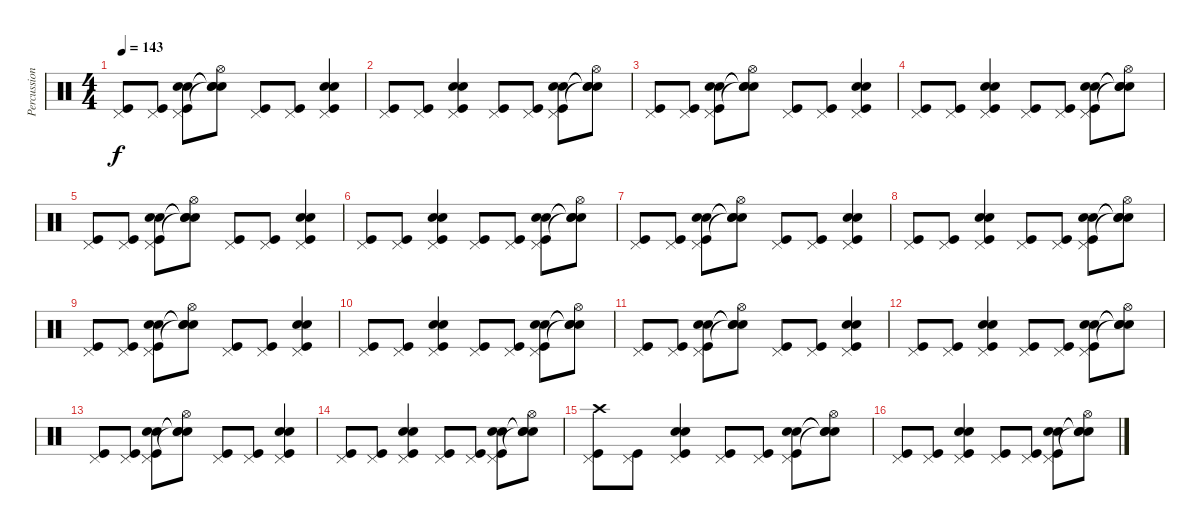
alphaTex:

\track ("Percussions" "Percussion") {instrument percussion}
\staff {score}
\articulation defaults
\ts (4 4)
\tempo 143
\clef neutral
\ks c
("Pedal Hi-Hat (hit)" "Kick (hit)").8{dy f} ("Pedal Hi-Hat (hit)" "Kick (hit)").8 ("Pedal Hi-Hat (hit)" "Snare (hit) 2" "Snare (hit) 2" "Kick (hit)").8 ("Hi-Hat (open)" "Snare (hit)"{t} "Snare (hit)"{t} "Snare (hit)"{t}).8 ("Pedal Hi-Hat (hit)" "Kick (hit)").8 ("Pedal Hi-Hat (hit)" "Kick (hit)").8 ("Pedal Hi-Hat (hit)" "Snare (hit) 2" "Snare (hit) 2" "Kick (hit)").4 |
("Pedal Hi-Hat (hit)" "Kick (hit)").8 ("Pedal Hi-Hat (hit)" "Kick (hit)").8 ("Pedal Hi-Hat (hit)" "Snare (hit) 2" "Snare (hit) 2" "Kick (hit)").4 ("Pedal Hi-Hat (hit)" "Kick (hit)").8 ("Pedal Hi-Hat (hit)" "Kick (hit)").8 ("Pedal Hi-Hat (hit)" "Snare (hit) 2" "Snare (hit) 2" "Kick (hit)").8 ("Hi-Hat (open)" "Snare (hit)"{t} "Snare (hit)"{t} "Snare (hit)"{t}).8 |
("Pedal Hi-Hat (hit)" "Kick (hit)").8 ("Pedal Hi-Hat (hit)" "Kick (hit)").8 ("Pedal Hi-Hat (hit)" "Snare (hit) 2" "Snare (hit) 2" "Kick (hit)").8 ("Hi-Hat (open)" "Snare (hit)"{t} "Snare (hit)"{t} "Snare (hit)"{t}).8 ("Pedal Hi-Hat (hit)" "Kick (hit)").8 ("Pedal Hi-Hat (hit)" "Kick (hit)").8 ("Pedal Hi-Hat (hit)" "Snare (hit) 2" "Snare (hit) 2" "Kick (hit)").4 |
("Pedal Hi-Hat (hit)" "Kick (hit)").8 ("Pedal Hi-Hat (hit)" "Kick (hit)").8 ("Pedal Hi-Hat (hit)" "Snare (hit) 2" "Snare (hit) 2" "Kick (hit)").4 ("Pedal Hi-Hat (hit)" "Kick (hit)").8 ("Pedal Hi-Hat (hit)" "Kick (hit)").8 ("Pedal Hi-Hat (hit)" "Snare (hit) 2" "Snare (hit) 2" "Kick (hit)").8 ("Hi-Hat (open)" "Snare (hit)"{t} "Snare (hit)"{t} "Snare (hit)"{t}).8 |
("Pedal Hi-Hat (hit)" "Kick (hit)").8 ("Pedal Hi-Hat (hit)" "Kick (hit)").8 ("Pedal Hi-Hat (hit)" "Snare (hit) 2" "Snare (hit) 2" "Kick (hit)").8 ("Hi-Hat (open)" "Snare (hit)"{t} "Snare (hit)"{t} "Snare (hit)"{t}).8 ("Pedal Hi-Hat (hit)" "Kick (hit)").8 ("Pedal Hi-Hat (hit)" "Kick (hit)").8 ("Pedal Hi-Hat (hit)" "Snare (hit) 2" "Snare (hit) 2" "Kick (hit)").4 |
("Pedal Hi-Hat (hit)" "Kick (hit)").8 ("Pedal Hi-Hat (hit)" "Kick (hit)").8 ("Pedal Hi-Hat (hit)" "Snare (hit) 2" "Snare (hit) 2" "Kick (hit)").4 ("Pedal Hi-Hat (hit)" "Kick (hit)").8 ("Pedal Hi-Hat (hit)" "Kick (hit)").8 ("Pedal Hi-Hat (hit)" "Snare (hit) 2" "Snare (hit) 2" "Kick (hit)").8 ("Hi-Hat (open)" "Snare (hit)"{t} "Snare (hit)"{t} "Snare (hit)"{t}).8 |
("Pedal Hi-Hat (hit)" "Kick (hit)").8 ("Pedal Hi-Hat (hit)" "Kick (hit)").8 ("Pedal Hi-Hat (hit)" "Snare (hit) 2" "Snare (hit) 2" "Kick (hit)").8 ("Hi-Hat (open)" "Snare (hit)"{t} "Snare (hit)"{t} "Snare (hit)"{t}).8 ("Pedal Hi-Hat (hit)" "Kick (hit)").8 ("Pedal Hi-Hat (hit)" "Kick (hit)").8 ("Pedal Hi-Hat (hit)" "Snare (hit) 2" "Snare (hit) 2" "Kick (hit)").4 |
("Pedal Hi-Hat (hit)" "Kick (hit)").8 ("Pedal Hi-Hat (hit)" "Kick (hit)").8 ("Pedal Hi-Hat (hit)" "Snare (hit) 2" "Snare (hit) 2" "Kick (hit)").4 ("Pedal Hi-Hat (hit)" "Kick (hit)").8 ("Pedal Hi-Hat (hit)" "Kick (hit)").8 ("Pedal Hi-Hat (hit)" "Snare (hit) 2" "Snare (hit) 2" "Kick (hit)").8 ("Hi-Hat (open)" "Snare (hit)"{t} "Snare (hit)"{t} "Snare (hit)"{t}).8 |
("Pedal Hi-Hat (hit)" "Kick (hit)").8 ("Pedal Hi-Hat (hit)" "Kick (hit)").8 ("Pedal Hi-Hat (hit)" "Snare (hit) 2" "Snare (hit) 2" "Kick (hit)").8 ("Hi-Hat (open)" "Snare (hit)"{t} "Snare (hit)"{t} "Snare (hit)"{t}).8 ("Pedal Hi-Hat (hit)" "Kick (hit)").8 ("Pedal Hi-Hat (hit)" "Kick (hit)").8 ("Pedal Hi-Hat (hit)" "Snare (hit) 2" "Snare (hit) 2" "Kick (hit)").4 |
("Pedal Hi-Hat (hit)" "Kick (hit)").8 ("Pedal Hi-Hat (hit)" "Kick (hit)").8 ("Pedal Hi-Hat (hit)" "Snare (hit) 2" "Snare (hit) 2" "Kick (hit)").4 ("Pedal Hi-Hat (hit)" "Kick (hit)").8 ("Pedal Hi-Hat (hit)" "Kick (hit)").8 ("Pedal Hi-Hat (hit)" "Snare (hit) 2" "Snare (hit) 2" "Kick (hit)").8 ("Hi-Hat (open)" "Snare (hit)"{t} "Snare (hit)"{t} "Snare (hit)"{t}).8 |
("Pedal Hi-Hat (hit)" "Kick (hit)").8 ("Pedal Hi-Hat (hit)" "Kick (hit)").8 ("Pedal Hi-Hat (hit)" "Snare (hit) 2" "Snare (hit) 2" "Kick (hit)").8 ("Hi-Hat (open)" "Snare (hit)"{t} "Snare (hit)"{t} "Snare (hit)"{t}).8 ("Pedal Hi-Hat (hit)" "Kick (hit)").8 ("Pedal Hi-Hat (hit)" "Kick (hit)").8 ("Pedal Hi-Hat (hit)" "Snare (hit) 2" "Snare (hit) 2" "Kick (hit)").4 |
("Pedal Hi-Hat (hit)" "Kick (hit)").8 ("Pedal Hi-Hat (hit)" "Kick (hit)").8 ("Pedal Hi-Hat (hit)" "Snare (hit) 2" "Snare (hit) 2" "Kick (hit)").4 ("Pedal Hi-Hat (hit)" "Kick (hit)").8 ("Pedal Hi-Hat (hit)" "Kick (hit)").8 ("Pedal Hi-Hat (hit)" "Snare (hit) 2" "Snare (hit) 2" "Kick (hit)").8 ("Hi-Hat (open)" "Snare (hit)"{t} "Snare (hit)"{t} "Snare (hit)"{t}).8 |
("Pedal Hi-Hat (hit)" "Kick (hit)").8 ("Pedal Hi-Hat (hit)" "Kick (hit)").8 ("Pedal Hi-Hat (hit)" "Snare (hit) 2" "Snare (hit) 2" "Kick (hit)").8 ("Hi-Hat (open)" "Snare (hit)"{t} "Snare (hit)"{t} "Snare (hit)"{t}).8 ("Pedal Hi-Hat (hit)" "Kick (hit)").8 ("Pedal Hi-Hat (hit)" "Kick (hit)").8 ("Pedal Hi-Hat (hit)" "Snare (hit) 2" "Snare (hit) 2" "Kick (hit)").4 |
("Pedal Hi-Hat (hit)" "Kick (hit)").8 ("Pedal Hi-Hat (hit)" "Kick (hit)").8 ("Pedal Hi-Hat (hit)" "Snare (hit) 2" "Snare (hit) 2" "Kick (hit)").4 ("Pedal Hi-Hat (hit)" "Kick (hit)").8 ("Pedal Hi-Hat (hit)" "Kick (hit)").8 ("Pedal Hi-Hat (hit)" "Snare (hit) 2" "Snare (hit) 2" "Kick (hit)").8 ("Hi-Hat (open)" "Snare (hit)"{t} "Snare (hit)"{t} "Snare (hit)"{t}).8 |
("Pedal Hi-Hat (hit)" "Crash high (hit)" "Kick (hit)").8 ("Pedal Hi-Hat (hit)" "Kick (hit)").8 ("Pedal Hi-Hat (hit)" "Snare (hit) 2" "Snare (hit) 2" "Kick (hit)").4 ("Pedal Hi-Hat (hit)" "Kick (hit)").8 ("Pedal Hi-Hat (hit)" "Kick (hit)").8 ("Pedal Hi-Hat (hit)" "Snare (hit) 2" "Snare (hit) 2" "Kick (hit)").8 ("Hi-Hat (open)" "Snare (hit)"{t} "Snare (hit)"{t} "Snare (hit)"{t}).8 |
("Pedal Hi-Hat (hit)" "Kick (hit)").8 ("Pedal Hi-Hat (hit)" "Kick (hit)").8 ("Pedal Hi-Hat (hit)" "Snare (hit) 2" "Snare (hit) 2" "Kick (hit)").4 ("Pedal Hi-Hat (hit)" "Kick (hit)").8 ("Pedal Hi-Hat (hit)" "Kick (hit)").8 ("Pedal Hi-Hat (hit)" "Snare (hit) 2" "Snare (hit) 2" "Kick (hit)").8 ("Hi-Hat (open)" "Snare (hit)"{t} "Snare (hit)"{t} "Snare (hit)"{t}).8
